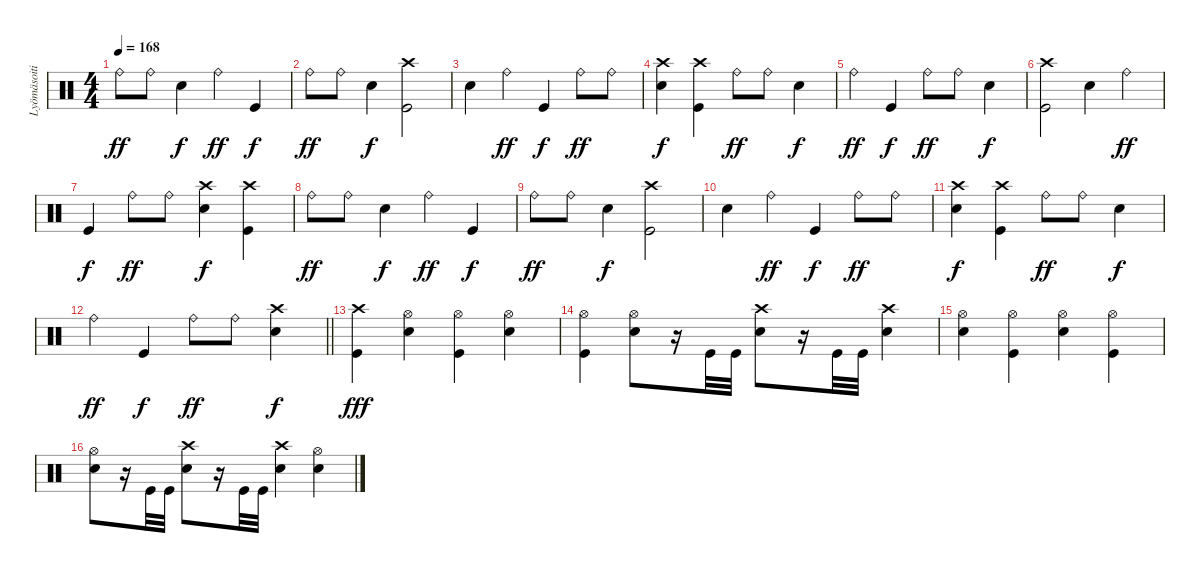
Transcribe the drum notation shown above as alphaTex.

\track ("Lyömäsoitin" "Lyömäsoiti") {instrument percussion}
\staff {score}
\articulation defaults
\ts (4 4)
\tempo 168
\clef neutral
\ks c "Ride (bell)".8{dy ff} "Ride (bell)".8 "Electric Snare (hit)".4{dy f} "Ride (bell)".4{dy ff} "Kick (hit)".4{dy f}
|
"Ride (bell)".8{dy ff} "Ride (bell)".8 "Electric Snare (hit)".4{dy f} ("Crash high (hit)" "Kick (hit)").2 |
"Electric Snare (hit)".4 "Ride (bell)".4{dy ff} "Kick (hit)".4{dy f} "Ride (bell)".8{dy ff} "Ride (bell)".8 |
("Crash high (hit)" "Electric Snare (hit)").4{dy f} ("Crash high (hit)" "Kick (hit)").4 "Ride (bell)".8{dy ff} "Ride (bell)".8 "Electric Snare (hit)".4{dy f} |
"Ride (bell)".4{dy ff} "Kick (hit)".4{dy f} "Ride (bell)".8{dy ff} "Ride (bell)".8 "Electric Snare (hit)".4{dy f} |
("Crash high (hit)" "Kick (hit)").2 "Electric Snare (hit)".4 "Ride (bell)".4{dy ff} |
"Kick (hit)".4{dy f} "Ride (bell)".8{dy ff} "Ride (bell)".8 ("Crash high (hit)" "Electric Snare (hit)").4{dy f} ("Crash high (hit)" "Kick (hit)").4 |
"Ride (bell)".8{dy ff} "Ride (bell)".8 "Electric Snare (hit)".4{dy f} "Ride (bell)".4{dy ff} "Kick (hit)".4{dy f} |
"Ride (bell)".8{dy ff} "Ride (bell)".8 "Electric Snare (hit)".4{dy f} ("Crash high (hit)" "Kick (hit)").2 |
"Electric Snare (hit)".4 "Ride (bell)".4{dy ff} "Kick (hit)".4{dy f} "Ride (bell)".8{dy ff} "Ride (bell)".8 |
("Crash high (hit)" "Electric Snare (hit)").4{dy f} ("Crash high (hit)" "Kick (hit)").4 "Ride (bell)".8{dy ff} "Ride (bell)".8 "Electric Snare (hit)".4{dy f} |
\barLineRight lightlight "Ride (bell)".4{dy ff} "Kick (hit)".4{dy f} "Ride (bell)".8{dy ff} "Ride (bell)".8
("Crash high (hit)" "Electric Snare (hit)").4{dy f} |
("Crash high (hit)" "Kick (hit)").4{dy fff} ("Hi-Hat (open)" "Electric Snare (hit)").4 ("Hi-Hat (open)" "Kick (hit)").4 ("Hi-Hat (open)" "Electric Snare (hit)").4 |
("Hi-Hat (open)" "Kick (hit)").4 ("Hi-Hat (open)" "Electric Snare (hit)").8 r.16 "Kick (hit)".32 "Kick (hit)".32 ("Crash high (hit)" "Electric Snare (hit)").8 r.16 "Kick (hit)".32 "Kick (hit)".32 ("Crash high (hit)" "Electric Snare (hit)").4 |
("Hi-Hat (open)" "Electric Snare (hit)").4 ("Hi-Hat (open)" "Kick (hit)").4 ("Hi-Hat (open)" "Electric Snare (hit)").4 ("Hi-Hat (open)" "Kick (hit)").4 |
("Hi-Hat (open)" "Electric Snare (hit)").8 r.16 "Kick (hit)".32 "Kick (hit)".32 ("Crash high (hit)" "Electric Snare (hit)").8 r.16 "Kick (hit)".32 "Kick (hit)".32 ("Crash high (hit)" "Electric Snare (hit)").4 ("Hi-Hat (open)" "Electric Snare (hit)").4
